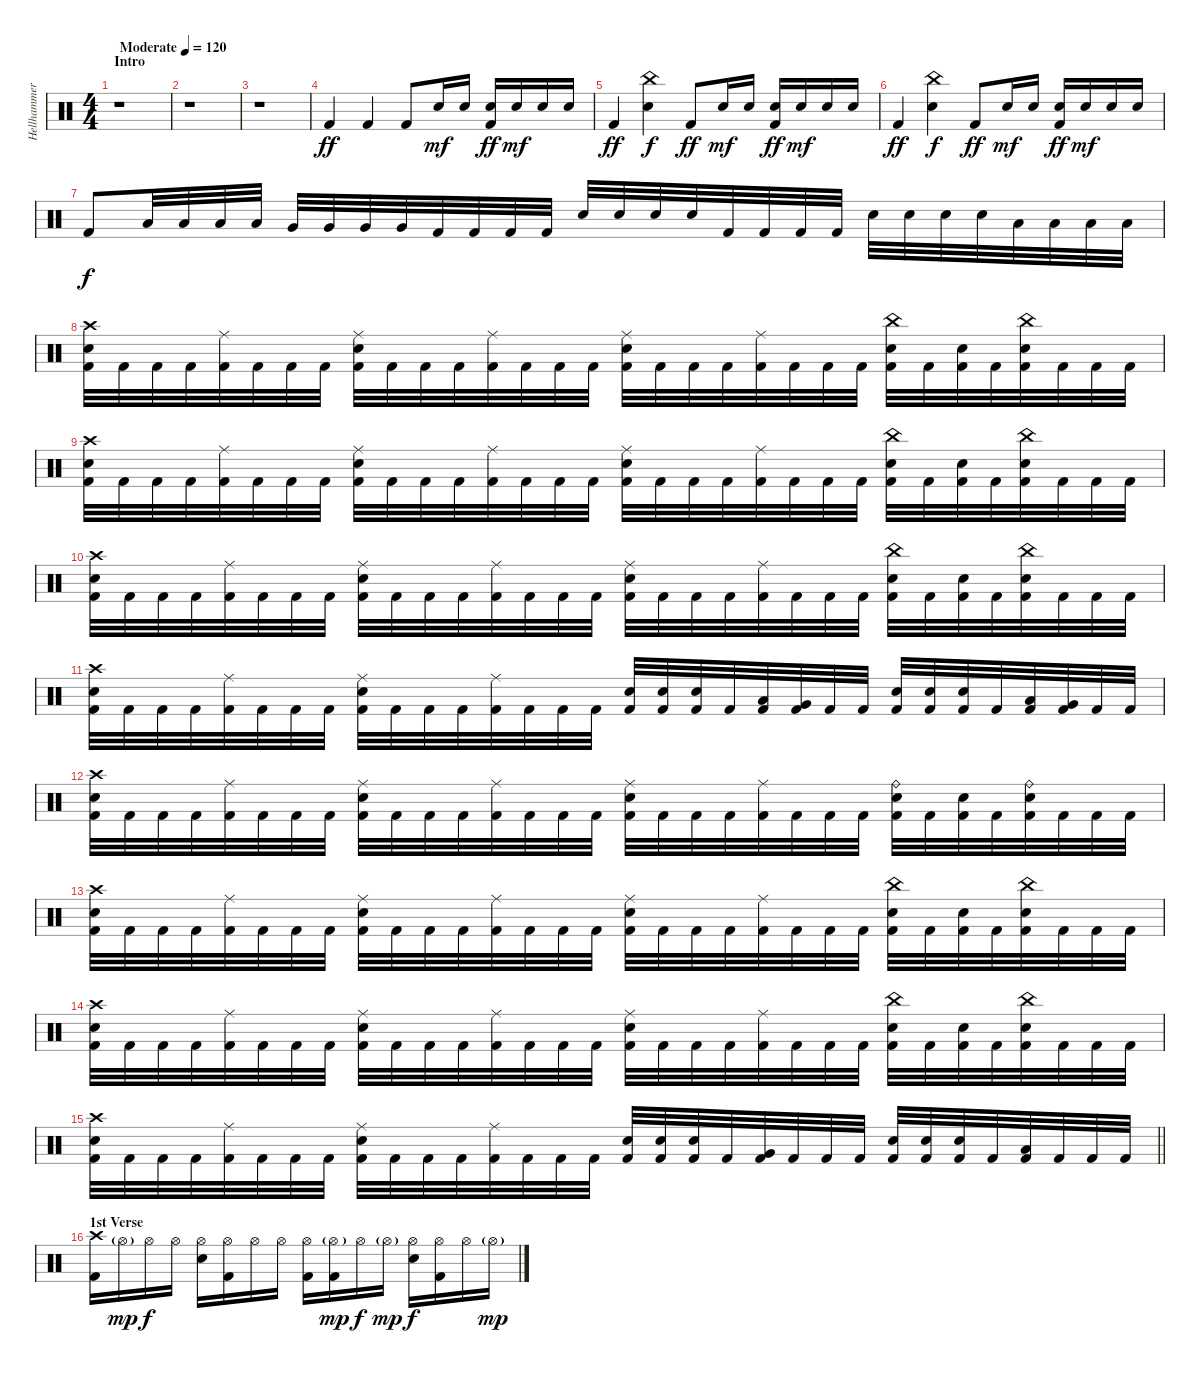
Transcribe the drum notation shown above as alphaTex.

\track ("Hellhammer" "Hellhammer") {instrument percussion}
\staff {score}
\articulation defaults
\ts (4 4)
\section ("" "Intro")
\tempo (120 "Moderate")
\clef neutral
\ks c
r.1{dy ff} |
r.1 |
r.1 |
"Kick (hit) 2".4 "Kick (hit) 2".4 "Kick (hit) 2".8 "Snare (hit) 2".16{dy mf} "Snare (hit) 2".16 ("Snare (hit) 2" "Kick (hit) 2").16{dy ff} "Snare (hit) 2".16{dy mf} "Snare (hit) 2".16 "Snare (hit) 2".16 |
"Kick (hit) 2".4{dy ff} ("China (hit)" "Snare (hit) 2").4{dy f} "Kick (hit) 2".8{dy ff} "Snare (hit) 2".16{dy mf} "Snare (hit) 2".16 ("Snare (hit) 2" "Kick (hit) 2").16{dy ff} "Snare (hit) 2".16{dy mf} "Snare (hit) 2".16 "Snare (hit) 2".16 |
"Kick (hit) 2".4{dy ff} ("China (hit)" "Snare (hit) 2").4{dy f} "Kick (hit) 2".8{dy ff} "Snare (hit) 2".16{dy mf} "Snare (hit) 2".16 ("Snare (hit) 2" "Kick (hit) 2").16{dy ff} "Snare (hit) 2".16{dy mf} "Snare (hit) 2".16 "Snare (hit) 2".16 |
"Kick (hit) 2".8{dy f} "Low Tom (hit)".32 "Low Tom (hit)".32 "Low Tom (hit)".32 "Low Tom (hit)".32 "Very Low Tom (hit)".32 "Very Low Tom (hit)".32 "Very Low Tom (hit)".32 "Very Low Tom (hit)".32 "Kick (hit) 2".32 "Kick (hit) 2".32 "Kick (hit) 2".32 "Kick (hit) 2".32 "Snare (hit) 2".32 "Snare (hit) 2".32 "Snare (hit) 2".32 "Snare (hit) 2".32 "Kick (hit) 2".32 "Kick (hit) 2".32 "Kick (hit) 2".32 "Kick (hit) 2".32 "Snare (hit) 2".32 "Snare (hit) 2".32 "Snare (hit) 2".32 "Snare (hit) 2".32 "Low Floor Tom (hit)".32 "Low Floor Tom (hit)".32 "Low Floor Tom (hit)".32 "Low Floor Tom (hit)".32 |
("Crash high (hit)" "Snare (hit) 2" "Kick (hit) 2").32 "Kick (hit) 2".32 "Kick (hit) 2".32 "Kick (hit) 2".32 ("Ride (middle)" "Kick (hit) 2").32 "Kick (hit) 2".32 "Kick (hit) 2".32 "Kick (hit) 2".32 ("Ride (middle)" "Snare (hit) 2" "Kick (hit) 2").32 "Kick (hit) 2".32 "Kick (hit) 2".32 "Kick (hit) 2".32 ("Ride (middle)" "Kick (hit) 2").32 "Kick (hit) 2".32 "Kick (hit) 2".32 "Kick (hit) 2".32 ("Ride (middle)" "Snare (hit) 2" "Kick (hit) 2").32 "Kick (hit) 2".32 "Kick (hit) 2".32 "Kick (hit) 2".32 ("Ride (middle)" "Kick (hit) 2").32 "Kick (hit) 2".32 "Kick (hit) 2".32 "Kick (hit) 2".32 ("China (hit)" "Snare (hit) 2" "Kick (hit) 2").32 "Kick (hit) 2".32 ("Snare (hit) 2" "Kick (hit) 2").32 "Kick (hit) 2".32 ("China (hit)" "Snare (hit) 2" "Kick (hit) 2").32 "Kick (hit) 2".32 "Kick (hit) 2".32 "Kick (hit) 2".32 |
("Crash high (hit)" "Snare (hit) 2" "Kick (hit) 2").32 "Kick (hit) 2".32 "Kick (hit) 2".32 "Kick (hit) 2".32 ("Ride (middle)" "Kick (hit) 2").32 "Kick (hit) 2".32 "Kick (hit) 2".32 "Kick (hit) 2".32 ("Ride (middle)" "Snare (hit) 2" "Kick (hit) 2").32 "Kick (hit) 2".32 "Kick (hit) 2".32 "Kick (hit) 2".32 ("Ride (middle)" "Kick (hit) 2").32 "Kick (hit) 2".32 "Kick (hit) 2".32 "Kick (hit) 2".32 ("Ride (middle)" "Snare (hit) 2" "Kick (hit) 2").32 "Kick (hit) 2".32 "Kick (hit) 2".32 "Kick (hit) 2".32 ("Ride (middle)" "Kick (hit) 2").32 "Kick (hit) 2".32 "Kick (hit) 2".32 "Kick (hit) 2".32 ("China (hit)" "Snare (hit) 2" "Kick (hit) 2").32 "Kick (hit) 2".32 ("Snare (hit) 2" "Kick (hit) 2").32 "Kick (hit) 2".32 ("China (hit)" "Snare (hit) 2" "Kick (hit) 2").32 "Kick (hit) 2".32 "Kick (hit) 2".32 "Kick (hit) 2".32 |
("Crash high (hit)" "Snare (hit) 2" "Kick (hit) 2").32 "Kick (hit) 2".32 "Kick (hit) 2".32 "Kick (hit) 2".32 ("Ride (middle)" "Kick (hit) 2").32 "Kick (hit) 2".32 "Kick (hit) 2".32 "Kick (hit) 2".32 ("Ride (middle)" "Snare (hit) 2" "Kick (hit) 2").32 "Kick (hit) 2".32 "Kick (hit) 2".32 "Kick (hit) 2".32 ("Ride (middle)" "Kick (hit) 2").32 "Kick (hit) 2".32 "Kick (hit) 2".32 "Kick (hit) 2".32 ("Ride (middle)" "Snare (hit) 2" "Kick (hit) 2").32 "Kick (hit) 2".32 "Kick (hit) 2".32 "Kick (hit) 2".32 ("Ride (middle)" "Kick (hit) 2").32 "Kick (hit) 2".32 "Kick (hit) 2".32 "Kick (hit) 2".32 ("China (hit)" "Snare (hit) 2" "Kick (hit) 2").32 "Kick (hit) 2".32 ("Snare (hit) 2" "Kick (hit) 2").32 "Kick (hit) 2".32 ("China (hit)" "Snare (hit) 2" "Kick (hit) 2").32 "Kick (hit) 2".32 "Kick (hit) 2".32 "Kick (hit) 2".32 |
("Crash high (hit)" "Snare (hit) 2" "Kick (hit) 2").32 "Kick (hit) 2".32 "Kick (hit) 2".32 "Kick (hit) 2".32 ("Ride (middle)" "Kick (hit) 2").32 "Kick (hit) 2".32 "Kick (hit) 2".32 "Kick (hit) 2".32 ("Ride (middle)" "Snare (hit) 2" "Kick (hit) 2").32 "Kick (hit) 2".32 "Kick (hit) 2".32 "Kick (hit) 2".32 ("Ride (middle)" "Kick (hit) 2").32 "Kick (hit) 2".32 "Kick (hit) 2".32 "Kick (hit) 2".32 ("Snare (hit) 2" "Kick (hit) 2").32 ("Snare (hit) 2" "Kick (hit) 2").32 ("Snare (hit) 2" "Kick (hit) 2").32 "Kick (hit) 2".32 ("Low Tom (hit)" "Kick (hit) 2").32 ("Very Low Tom (hit)" "Kick (hit) 2").32 "Kick (hit) 2".32 "Kick (hit) 2".32 ("Snare (hit) 2" "Kick (hit) 2").32 ("Snare (hit) 2" "Kick (hit) 2").32 ("Snare (hit) 2" "Kick (hit) 2").32 "Kick (hit) 2".32 ("Low Tom (hit)" "Kick (hit) 2").32 ("Very Low Tom (hit)" "Kick (hit) 2").32 "Kick (hit) 2".32 "Kick (hit) 2".32 |
("Crash high (hit)" "Snare (hit) 2" "Kick (hit) 2").32 "Kick (hit) 2".32 "Kick (hit) 2".32 "Kick (hit) 2".32 ("Ride (middle)" "Kick (hit) 2").32 "Kick (hit) 2".32 "Kick (hit) 2".32 "Kick (hit) 2".32 ("Ride (middle)" "Snare (hit) 2" "Kick (hit) 2").32 "Kick (hit) 2".32 "Kick (hit) 2".32 "Kick (hit) 2".32 ("Ride (middle)" "Kick (hit) 2").32 "Kick (hit) 2".32 "Kick (hit) 2".32 "Kick (hit) 2".32 ("Ride (middle)" "Snare (hit) 2" "Kick (hit) 2").32 "Kick (hit) 2".32 "Kick (hit) 2".32 "Kick (hit) 2".32 ("Ride (middle)" "Kick (hit) 2").32 "Kick (hit) 2".32 "Kick (hit) 2".32 "Kick (hit) 2".32 ("Ride (bell)" "Snare (hit) 2" "Kick (hit) 2").32 "Kick (hit) 2".32 ("Snare (hit) 2" "Kick (hit) 2").32 "Kick (hit) 2".32 ("Ride (bell)" "Snare (hit) 2" "Kick (hit) 2").32 "Kick (hit) 2".32 "Kick (hit) 2".32 "Kick (hit) 2".32 |
("Crash high (hit)" "Snare (hit) 2" "Kick (hit) 2").32 "Kick (hit) 2".32 "Kick (hit) 2".32 "Kick (hit) 2".32 ("Ride (middle)" "Kick (hit) 2").32 "Kick (hit) 2".32 "Kick (hit) 2".32 "Kick (hit) 2".32 ("Ride (middle)" "Snare (hit) 2" "Kick (hit) 2").32 "Kick (hit) 2".32 "Kick (hit) 2".32 "Kick (hit) 2".32 ("Ride (middle)" "Kick (hit) 2").32 "Kick (hit) 2".32 "Kick (hit) 2".32 "Kick (hit) 2".32 ("Ride (middle)" "Snare (hit) 2" "Kick (hit) 2").32 "Kick (hit) 2".32 "Kick (hit) 2".32 "Kick (hit) 2".32 ("Ride (middle)" "Kick (hit) 2").32 "Kick (hit) 2".32 "Kick (hit) 2".32 "Kick (hit) 2".32 ("China (hit)" "Snare (hit) 2" "Kick (hit) 2").32 "Kick (hit) 2".32 ("Snare (hit) 2" "Kick (hit) 2").32 "Kick (hit) 2".32 ("China (hit)" "Snare (hit) 2" "Kick (hit) 2").32 "Kick (hit) 2".32 "Kick (hit) 2".32 "Kick (hit) 2".32 |
("Crash high (hit)" "Snare (hit) 2" "Kick (hit) 2").32 "Kick (hit) 2".32 "Kick (hit) 2".32 "Kick (hit) 2".32 ("Ride (middle)" "Kick (hit) 2").32 "Kick (hit) 2".32 "Kick (hit) 2".32 "Kick (hit) 2".32 ("Ride (middle)" "Snare (hit) 2" "Kick (hit) 2").32 "Kick (hit) 2".32 "Kick (hit) 2".32 "Kick (hit) 2".32 ("Ride (middle)" "Kick (hit) 2").32 "Kick (hit) 2".32 "Kick (hit) 2".32 "Kick (hit) 2".32 ("Ride (middle)" "Snare (hit) 2" "Kick (hit) 2").32 "Kick (hit) 2".32 "Kick (hit) 2".32 "Kick (hit) 2".32 ("Ride (middle)" "Kick (hit) 2").32 "Kick (hit) 2".32 "Kick (hit) 2".32 "Kick (hit) 2".32 ("China (hit)" "Snare (hit) 2" "Kick (hit) 2").32 "Kick (hit) 2".32 ("Snare (hit) 2" "Kick (hit) 2").32 "Kick (hit) 2".32 ("China (hit)" "Snare (hit) 2" "Kick (hit) 2").32 "Kick (hit) 2".32 "Kick (hit) 2".32 "Kick (hit) 2".32 |
\barLineRight lightlight
("Crash high (hit)" "Snare (hit) 2" "Kick (hit) 2").32 "Kick (hit) 2".32 "Kick (hit) 2".32 "Kick (hit) 2".32 ("Ride (middle)" "Kick (hit) 2").32 "Kick (hit) 2".32 "Kick (hit) 2".32 "Kick (hit) 2".32 ("Ride (middle)" "Snare (hit) 2" "Kick (hit) 2").32 "Kick (hit) 2".32 "Kick (hit) 2".32 "Kick (hit) 2".32 ("Ride (middle)" "Kick (hit) 2").32 "Kick (hit) 2".32 "Kick (hit) 2".32 "Kick (hit) 2".32 ("Snare (hit) 2" "Kick (hit) 2").32 ("Snare (hit) 2" "Kick (hit) 2").32 ("Snare (hit) 2" "Kick (hit) 2").32 "Kick (hit) 2".32 ("Very Low Tom (hit)" "Kick (hit) 2").32 "Kick (hit) 2".32 "Kick (hit) 2".32 "Kick (hit) 2".32 ("Snare (hit) 2" "Kick (hit) 2").32 ("Snare (hit) 2" "Kick (hit) 2").32 ("Snare (hit) 2" "Kick (hit) 2").32 "Kick (hit) 2".32 ("Low Floor Tom (hit)" "Kick (hit) 2").32 "Kick (hit) 2".32 "Kick (hit) 2".32 "Kick (hit) 2".32 |
\section ("" "1st Verse")
("Crash high (hit)" "Kick (hit) 2").16 "Hi-Hat (open)"{g}.16{dy mp} "Hi-Hat (open)".16{dy f} "Hi-Hat (open)".16 ("Hi-Hat (open)" "Snare (hit) 2").16 ("Hi-Hat (open)" "Kick (hit) 2").16 "Hi-Hat (open)".16 "Hi-Hat (open)".16 ("Hi-Hat (open)" "Kick (hit) 2").16 ("Hi-Hat (open)"{g} "Kick (hit) 2").16{dy mp} "Hi-Hat (open)".16{dy f} "Hi-Hat (open)"{g}.16{dy mp} ("Hi-Hat (open)" "Snare (hit) 2").16{dy f} ("Hi-Hat (open)" "Kick (hit) 2").16 "Hi-Hat (open)".16 "Hi-Hat (open)"{g}.16{dy mp}
